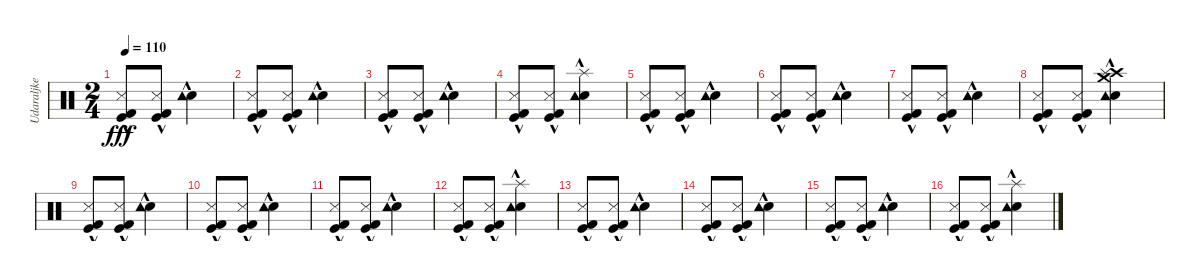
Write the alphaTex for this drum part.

\track ("Udaraljke" "Udaraljke") {instrument percussion}
\staff {score}
\articulation defaults
\ts (2 4)
\tempo 110
\clef neutral
\ks c
("Kick (hit) 2"{hac} "Kick (hit)"{hac} "Snare (side stick) 3"{hac}).8{dy fff} ("Kick (hit) 2"{hac} "Kick (hit)"{hac} "Snare (side stick) 3"{hac}).8 ("Snare (hit) 2"{hac} "Tambourine (hit)"{hac}).4 |
("Kick (hit) 2"{hac} "Kick (hit)"{hac} "Snare (side stick) 3"{hac}).8 ("Kick (hit) 2"{hac} "Kick (hit)"{hac} "Snare (side stick) 3"{hac}).8 ("Snare (hit) 2"{hac} "Tambourine (hit)"{hac}).4 |
("Kick (hit) 2"{hac} "Kick (hit)"{hac} "Snare (side stick) 3"{hac}).8 ("Kick (hit) 2"{hac} "Kick (hit)"{hac} "Snare (side stick) 3"{hac}).8 ("Snare (hit) 2"{hac} "Tambourine (hit)"{hac}).4 |
("Kick (hit) 2"{hac} "Kick (hit)"{hac} "Snare (side stick) 3"{hac}).8 ("Kick (hit) 2"{hac} "Kick (hit)"{hac} "Snare (side stick) 3"{hac}).8 ("Snare (hit) 2"{hac} "Splash (hit)"{hac} "Tambourine (hit)"{hac}).4 |
("Kick (hit) 2"{hac} "Kick (hit)"{hac} "Snare (side stick) 3"{hac}).8 ("Kick (hit) 2"{hac} "Kick (hit)"{hac} "Snare (side stick) 3"{hac}).8 ("Snare (hit) 2"{hac} "Tambourine (hit)"{hac}).4 |
("Kick (hit) 2"{hac} "Kick (hit)"{hac} "Snare (side stick) 3"{hac}).8 ("Kick (hit) 2"{hac} "Kick (hit)"{hac} "Snare (side stick) 3"{hac}).8 ("Snare (hit) 2"{hac} "Tambourine (hit)"{hac}).4 |
("Kick (hit) 2"{hac} "Kick (hit)"{hac} "Snare (side stick) 3"{hac}).8 ("Kick (hit) 2"{hac} "Kick (hit)"{hac} "Snare (side stick) 3"{hac}).8 ("Snare (hit) 2"{hac} "Tambourine (hit)"{hac}).4 |
("Kick (hit) 2"{hac} "Kick (hit)"{hac} "Snare (side stick) 3"{hac}).8 ("Kick (hit) 2"{hac} "Kick (hit)"{hac} "Snare (side stick) 3"{hac}).8 ("Snare (hit) 2"{hac} "Crash high (hit)" "Splash (hit)"{hac} "Crash medium (hit)" "Tambourine (hit)"{hac}).4 |
("Kick (hit) 2"{hac} "Kick (hit)"{hac} "Snare (side stick) 3"{hac}).8 ("Kick (hit) 2"{hac} "Kick (hit)"{hac} "Snare (side stick) 3"{hac}).8 ("Snare (hit) 2"{hac} "Tambourine (hit)"{hac}).4 |
("Kick (hit) 2"{hac} "Kick (hit)"{hac} "Snare (side stick) 3"{hac}).8 ("Kick (hit) 2"{hac} "Kick (hit)"{hac} "Snare (side stick) 3"{hac}).8 ("Snare (hit) 2"{hac} "Tambourine (hit)"{hac}).4 |
("Kick (hit) 2"{hac} "Kick (hit)"{hac} "Snare (side stick) 3"{hac}).8 ("Kick (hit) 2"{hac} "Kick (hit)"{hac} "Snare (side stick) 3"{hac}).8 ("Snare (hit) 2"{hac} "Tambourine (hit)"{hac}).4 |
("Kick (hit) 2"{hac} "Kick (hit)"{hac} "Snare (side stick) 3"{hac}).8 ("Kick (hit) 2"{hac} "Kick (hit)"{hac} "Snare (side stick) 3"{hac}).8 ("Snare (hit) 2"{hac} "Splash (hit)"{hac} "Tambourine (hit)"{hac}).4 |
("Kick (hit) 2"{hac} "Kick (hit)"{hac} "Snare (side stick) 3"{hac}).8 ("Kick (hit) 2"{hac} "Kick (hit)"{hac} "Snare (side stick) 3"{hac}).8 ("Snare (hit) 2"{hac} "Tambourine (hit)"{hac}).4 |
("Kick (hit) 2"{hac} "Kick (hit)"{hac} "Snare (side stick) 3"{hac}).8 ("Kick (hit) 2"{hac} "Kick (hit)"{hac} "Snare (side stick) 3"{hac}).8 ("Snare (hit) 2"{hac} "Tambourine (hit)"{hac}).4 |
("Kick (hit) 2"{hac} "Kick (hit)"{hac} "Snare (side stick) 3"{hac}).8 ("Kick (hit) 2"{hac} "Kick (hit)"{hac} "Snare (side stick) 3"{hac}).8 ("Snare (hit) 2"{hac} "Tambourine (hit)"{hac}).4 |
("Kick (hit) 2"{hac} "Kick (hit)"{hac} "Snare (side stick) 3"{hac}).8 ("Kick (hit) 2"{hac} "Kick (hit)"{hac} "Snare (side stick) 3"{hac}).8 ("Snare (hit) 2"{hac} "Splash (hit)"{hac} "Tambourine (hit)"{hac}).4
